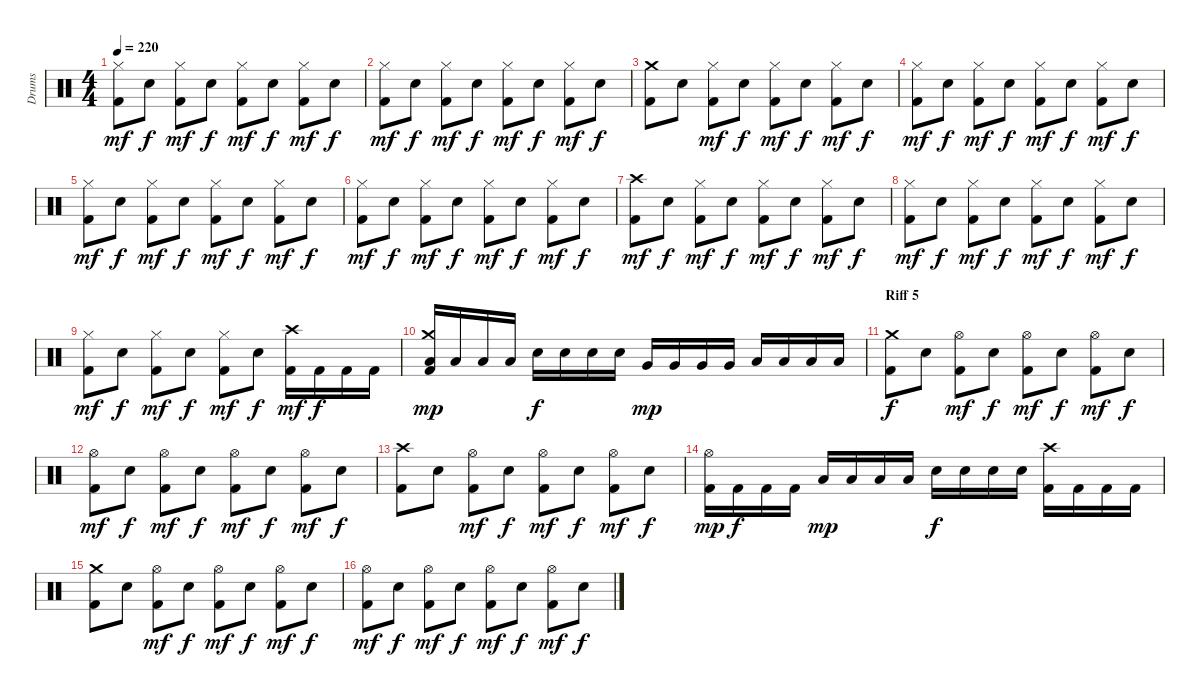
\track ("Drums" "Drums") {instrument percussion}
\staff {score}
\articulation defaults
\ts (4 4)
\tempo 220
\clef neutral
\ks c
("Hi-Hat (closed)" "Kick (hit) 2").8{dy mf} "Electric Snare (hit)".8{dy f} ("Hi-Hat (closed)" "Kick (hit) 2").8{dy mf} "Electric Snare (hit)".8{dy f} ("Hi-Hat (closed)" "Kick (hit) 2").8{dy mf} "Electric Snare (hit)".8{dy f} ("Hi-Hat (closed)" "Kick (hit) 2").8{dy mf} "Electric Snare (hit)".8{dy f} |
("Hi-Hat (closed)" "Kick (hit) 2").8{dy mf} "Electric Snare (hit)".8{dy f} ("Hi-Hat (closed)" "Kick (hit) 2").8{dy mf} "Electric Snare (hit)".8{dy f} ("Hi-Hat (closed)" "Kick (hit) 2").8{dy mf} "Electric Snare (hit)".8{dy f} ("Hi-Hat (closed)" "Kick (hit) 2").8{dy mf} "Electric Snare (hit)".8{dy f} |
("Crash medium (hit)" "Kick (hit) 2").8 "Electric Snare (hit)".8 ("Hi-Hat (closed)" "Kick (hit) 2").8{dy mf} "Electric Snare (hit)".8{dy f} ("Hi-Hat (closed)" "Kick (hit) 2").8{dy mf} "Electric Snare (hit)".8{dy f} ("Hi-Hat (closed)" "Kick (hit) 2").8{dy mf} "Electric Snare (hit)".8{dy f} |
("Hi-Hat (closed)" "Kick (hit) 2").8{dy mf} "Electric Snare (hit)".8{dy f} ("Hi-Hat (closed)" "Kick (hit) 2").8{dy mf} "Electric Snare (hit)".8{dy f} ("Hi-Hat (closed)" "Kick (hit) 2").8{dy mf} "Electric Snare (hit)".8{dy f} ("Hi-Hat (closed)" "Kick (hit) 2").8{dy mf} "Electric Snare (hit)".8{dy f} |
("Hi-Hat (closed)" "Kick (hit) 2").8{dy mf} "Electric Snare (hit)".8{dy f} ("Hi-Hat (closed)" "Kick (hit) 2").8{dy mf} "Electric Snare (hit)".8{dy f} ("Hi-Hat (closed)" "Kick (hit) 2").8{dy mf} "Electric Snare (hit)".8{dy f} ("Hi-Hat (closed)" "Kick (hit) 2").8{dy mf} "Electric Snare (hit)".8{dy f} |
("Hi-Hat (closed)" "Kick (hit) 2").8{dy mf} "Electric Snare (hit)".8{dy f} ("Hi-Hat (closed)" "Kick (hit) 2").8{dy mf} "Electric Snare (hit)".8{dy f} ("Hi-Hat (closed)" "Kick (hit) 2").8{dy mf} "Electric Snare (hit)".8{dy f} ("Hi-Hat (closed)" "Kick (hit) 2").8{dy mf} "Electric Snare (hit)".8{dy f} |
("Crash high (hit)" "Kick (hit) 2").8{dy mf} "Electric Snare (hit)".8{dy f} ("Hi-Hat (closed)" "Kick (hit) 2").8{dy mf} "Electric Snare (hit)".8{dy f} ("Hi-Hat (closed)" "Kick (hit) 2").8{dy mf} "Electric Snare (hit)".8{dy f} ("Hi-Hat (closed)" "Kick (hit) 2").8{dy mf} "Electric Snare (hit)".8{dy f} |
("Hi-Hat (closed)" "Kick (hit) 2").8{dy mf} "Electric Snare (hit)".8{dy f} ("Hi-Hat (closed)" "Kick (hit) 2").8{dy mf} "Electric Snare (hit)".8{dy f} ("Hi-Hat (closed)" "Kick (hit) 2").8{dy mf} "Electric Snare (hit)".8{dy f} ("Hi-Hat (closed)" "Kick (hit) 2").8{dy mf} "Electric Snare (hit)".8{dy f} |
("Hi-Hat (closed)" "Kick (hit) 2").8{dy mf} "Electric Snare (hit)".8{dy f} ("Hi-Hat (closed)" "Kick (hit) 2").8{dy mf} "Electric Snare (hit)".8{dy f} ("Hi-Hat (closed)" "Kick (hit) 2").8{dy mf} "Electric Snare (hit)".8{dy f} ("Crash high (hit)" "Kick (hit) 2").16{dy mf} "Kick (hit) 2".16{dy f} "Kick (hit) 2".16 "Kick (hit) 2".16 |
("Crash medium (hit)" "Low Tom (hit)" "Kick (hit) 2").16{dy mp} "Low Tom (hit)".16 "Low Tom (hit)".16 "Low Tom (hit)".16 "Electric Snare (hit)".16{dy f} "Electric Snare (hit)".16 "Electric Snare (hit)".16 "Electric Snare (hit)".16 "Very Low Tom (hit)".16{dy mp} "Very Low Tom (hit)".16 "Very Low Tom (hit)".16 "Very Low Tom (hit)".16 "Low Floor Tom (hit)".16 "Low Floor Tom (hit)".16 "Low Floor Tom (hit)".16 "Low Floor Tom (hit)".16 |
\section ("" "Riff 5")
("Crash medium (hit)" "Kick (hit) 2").8{dy f} "Electric Snare (hit)".8 ("Hi-Hat (open)" "Kick (hit) 2").8{dy mf} "Electric Snare (hit)".8{dy f} ("Hi-Hat (open)" "Kick (hit) 2").8{dy mf} "Electric Snare (hit)".8{dy f} ("Hi-Hat (open)" "Kick (hit) 2").8{dy mf} "Electric Snare (hit)".8{dy f} |
("Hi-Hat (open)" "Kick (hit) 2").8{dy mf} "Electric Snare (hit)".8{dy f} ("Hi-Hat (open)" "Kick (hit) 2").8{dy mf} "Electric Snare (hit)".8{dy f} ("Hi-Hat (open)" "Kick (hit) 2").8{dy mf} "Electric Snare (hit)".8{dy f} ("Hi-Hat (open)" "Kick (hit) 2").8{dy mf} "Electric Snare (hit)".8{dy f} |
("Crash high (hit)" "Kick (hit) 2").8 "Electric Snare (hit)".8 ("Hi-Hat (open)" "Kick (hit) 2").8{dy mf} "Electric Snare (hit)".8{dy f} ("Hi-Hat (open)" "Kick (hit) 2").8{dy mf} "Electric Snare (hit)".8{dy f} ("Hi-Hat (open)" "Kick (hit) 2").8{dy mf} "Electric Snare (hit)".8{dy f} |
("Hi-Hat (open)" "Kick (hit) 2").16{dy mp} "Kick (hit) 2".16{dy f} "Kick (hit) 2".16 "Kick (hit) 2".16 "Low Tom (hit)".16{dy mp} "Low Tom (hit)".16 "Low Tom (hit)".16 "Low Tom (hit)".16 "Electric Snare (hit)".16{dy f} "Electric Snare (hit)".16 "Electric Snare (hit)".16 "Electric Snare (hit)".16 ("Crash high (hit)" "Kick (hit) 2").16 "Kick (hit) 2".16 "Kick (hit) 2".16 "Kick (hit) 2".16 |
("Crash medium (hit)" "Kick (hit) 2").8 "Electric Snare (hit)".8 ("Hi-Hat (open)" "Kick (hit) 2").8{dy mf} "Electric Snare (hit)".8{dy f} ("Hi-Hat (open)" "Kick (hit) 2").8{dy mf} "Electric Snare (hit)".8{dy f} ("Hi-Hat (open)" "Kick (hit) 2").8{dy mf} "Electric Snare (hit)".8{dy f} |
("Hi-Hat (open)" "Kick (hit) 2").8{dy mf} "Electric Snare (hit)".8{dy f} ("Hi-Hat (open)" "Kick (hit) 2").8{dy mf} "Electric Snare (hit)".8{dy f} ("Hi-Hat (open)" "Kick (hit) 2").8{dy mf} "Electric Snare (hit)".8{dy f} ("Hi-Hat (open)" "Kick (hit) 2").8{dy mf} "Electric Snare (hit)".8{dy f}
